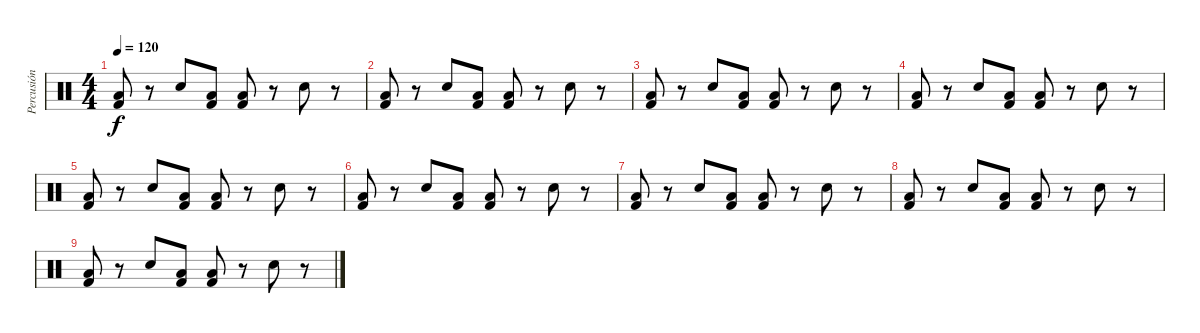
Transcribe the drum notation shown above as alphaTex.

\track ("Percusión" "Percusión") {instrument percussion}
\staff {score}
\articulation defaults
\ts (4 4)
\tempo 120
\clef neutral
\ks c
("Kick (hit) 2" "Low Tom (hit)").8{dy f} r.8 "Snare (hit) 2".8 ("Kick (hit) 2" "Low Tom (hit)").8 ("Kick (hit) 2" "Low Tom (hit)").8 r.8 "Snare (hit) 2".8 r.8 |
("Kick (hit) 2" "Low Tom (hit)").8 r.8 "Snare (hit) 2".8 ("Kick (hit) 2" "Low Tom (hit)").8 ("Kick (hit) 2" "Low Tom (hit)").8 r.8 "Snare (hit) 2".8 r.8 |
("Kick (hit) 2" "Low Tom (hit)").8 r.8 "Snare (hit) 2".8 ("Kick (hit) 2" "Low Tom (hit)").8 ("Kick (hit) 2" "Low Tom (hit)").8 r.8 "Snare (hit) 2".8 r.8 |
("Kick (hit) 2" "Low Tom (hit)").8 r.8 "Snare (hit) 2".8 ("Kick (hit) 2" "Low Tom (hit)").8 ("Kick (hit) 2" "Low Tom (hit)").8 r.8 "Snare (hit) 2".8 r.8 |
("Kick (hit) 2" "Low Tom (hit)").8 r.8 "Snare (hit) 2".8 ("Kick (hit) 2" "Low Tom (hit)").8 ("Kick (hit) 2" "Low Tom (hit)").8 r.8 "Snare (hit) 2".8 r.8 |
("Kick (hit) 2" "Low Tom (hit)").8 r.8 "Snare (hit) 2".8 ("Kick (hit) 2" "Low Tom (hit)").8 ("Kick (hit) 2" "Low Tom (hit)").8 r.8 "Snare (hit) 2".8 r.8 |
("Kick (hit) 2" "Low Tom (hit)").8 r.8 "Snare (hit) 2".8 ("Kick (hit) 2" "Low Tom (hit)").8 ("Kick (hit) 2" "Low Tom (hit)").8 r.8 "Snare (hit) 2".8 r.8 |
("Kick (hit) 2" "Low Tom (hit)").8 r.8 "Snare (hit) 2".8 ("Kick (hit) 2" "Low Tom (hit)").8 ("Kick (hit) 2" "Low Tom (hit)").8 r.8 "Snare (hit) 2".8 r.8 |
("Kick (hit) 2" "Low Tom (hit)").8 r.8 "Snare (hit) 2".8 ("Kick (hit) 2" "Low Tom (hit)").8 ("Kick (hit) 2" "Low Tom (hit)").8 r.8 "Snare (hit) 2".8 r.8
